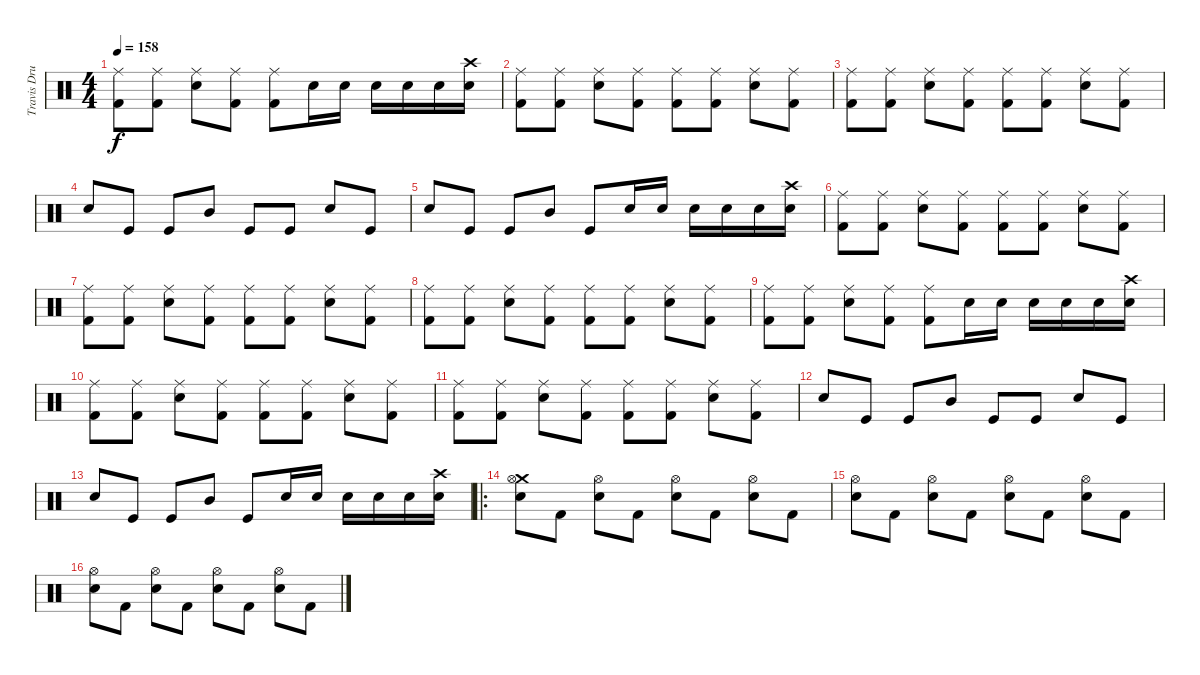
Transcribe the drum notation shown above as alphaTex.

\track ("Travis Drums" "Travis Dru") {instrument percussion}
\staff {score}
\articulation defaults
\ts (4 4)
\tempo 158
\clef neutral
\ks c
("Ride (middle)" "Kick (hit) 2").8{dy f} ("Ride (middle)" "Kick (hit) 2").8 ("Ride (middle)" "Snare (hit) 2").8 ("Ride (middle)" "Kick (hit) 2").8 ("Ride (middle)" "Kick (hit) 2").8 "Snare (hit) 2".16 "Snare (hit) 2".16 "Snare (hit) 2".16 "Snare (hit) 2".16 "Snare (hit) 2".16 ("Snare (hit) 2" "Crash high (hit)").16 |
("Ride (middle)" "Kick (hit) 2").8 ("Ride (middle)" "Kick (hit) 2").8 ("Ride (middle)" "Snare (hit) 2").8 ("Ride (middle)" "Kick (hit) 2").8 ("Ride (middle)" "Kick (hit) 2").8 ("Ride (middle)" "Kick (hit) 2").8 ("Ride (middle)" "Snare (hit) 2").8 ("Ride (middle)" "Kick (hit) 2").8 |
("Ride (middle)" "Kick (hit) 2").8 ("Ride (middle)" "Kick (hit) 2").8 ("Ride (middle)" "Snare (hit) 2").8 ("Ride (middle)" "Kick (hit) 2").8 ("Ride (middle)" "Kick (hit) 2").8 ("Ride (middle)" "Kick (hit) 2").8 ("Ride (middle)" "Snare (hit) 2").8 ("Ride (middle)" "Kick (hit) 2").8 |
"Snare (hit) 2".8 "Kick (hit)".8 "Kick (hit)".8 "Mid Tom (hit)".8 "Kick (hit)".8 "Kick (hit)".8 "Snare (hit) 2".8 "Kick (hit)".8 |
"Snare (hit) 2".8 "Kick (hit)".8 "Kick (hit)".8 "Mid Tom (hit)".8 "Kick (hit)".8 "Snare (hit) 2".16 "Snare (hit) 2".16 "Snare (hit) 2".16 "Snare (hit) 2".16 "Snare (hit) 2".16 ("Snare (hit) 2" "Crash high (hit)").16 |
("Ride (middle)" "Kick (hit) 2").8 ("Ride (middle)" "Kick (hit) 2").8 ("Ride (middle)" "Snare (hit) 2").8 ("Ride (middle)" "Kick (hit) 2").8 ("Ride (middle)" "Kick (hit) 2").8 ("Ride (middle)" "Kick (hit) 2").8 ("Ride (middle)" "Snare (hit) 2").8 ("Ride (middle)" "Kick (hit) 2").8 |
("Ride (middle)" "Kick (hit) 2").8 ("Ride (middle)" "Kick (hit) 2").8 ("Ride (middle)" "Snare (hit) 2").8 ("Ride (middle)" "Kick (hit) 2").8 ("Ride (middle)" "Kick (hit) 2").8 ("Ride (middle)" "Kick (hit) 2").8 ("Ride (middle)" "Snare (hit) 2").8 ("Ride (middle)" "Kick (hit) 2").8 |
("Ride (middle)" "Kick (hit) 2").8 ("Ride (middle)" "Kick (hit) 2").8 ("Ride (middle)" "Snare (hit) 2").8 ("Ride (middle)" "Kick (hit) 2").8 ("Ride (middle)" "Kick (hit) 2").8 ("Ride (middle)" "Kick (hit) 2").8 ("Ride (middle)" "Snare (hit) 2").8 ("Ride (middle)" "Kick (hit) 2").8 |
("Ride (middle)" "Kick (hit) 2").8 ("Ride (middle)" "Kick (hit) 2").8 ("Ride (middle)" "Snare (hit) 2").8 ("Ride (middle)" "Kick (hit) 2").8 ("Ride (middle)" "Kick (hit) 2").8 "Snare (hit) 2".16 "Snare (hit) 2".16 "Snare (hit) 2".16 "Snare (hit) 2".16 "Snare (hit) 2".16 ("Snare (hit) 2" "Crash high (hit)").16 |
("Ride (middle)" "Kick (hit) 2").8 ("Ride (middle)" "Kick (hit) 2").8 ("Ride (middle)" "Snare (hit) 2").8 ("Ride (middle)" "Kick (hit) 2").8 ("Ride (middle)" "Kick (hit) 2").8 ("Ride (middle)" "Kick (hit) 2").8 ("Ride (middle)" "Snare (hit) 2").8 ("Ride (middle)" "Kick (hit) 2").8 |
("Ride (middle)" "Kick (hit) 2").8 ("Ride (middle)" "Kick (hit) 2").8 ("Ride (middle)" "Snare (hit) 2").8 ("Ride (middle)" "Kick (hit) 2").8 ("Ride (middle)" "Kick (hit) 2").8 ("Ride (middle)" "Kick (hit) 2").8 ("Ride (middle)" "Snare (hit) 2").8 ("Ride (middle)" "Kick (hit) 2").8 |
"Snare (hit) 2".8 "Kick (hit)".8 "Kick (hit)".8 "Mid Tom (hit)".8 "Kick (hit)".8 "Kick (hit)".8 "Snare (hit) 2".8 "Kick (hit)".8 |
"Snare (hit) 2".8 "Kick (hit)".8 "Kick (hit)".8 "Mid Tom (hit)".8 "Kick (hit)".8 "Snare (hit) 2".16 "Snare (hit) 2".16 "Snare (hit) 2".16 "Snare (hit) 2".16 "Snare (hit) 2".16 ("Snare (hit) 2" "Crash high (hit)").16 |
\ro
("Snare (hit) 2" "Crash medium (hit)" "Hi-Hat (open)").8 "Kick (hit) 2".8 ("Snare (hit) 2" "Hi-Hat (open)").8 "Kick (hit) 2".8 ("Snare (hit) 2" "Hi-Hat (open)").8 "Kick (hit) 2".8 ("Snare (hit) 2" "Hi-Hat (open)").8 "Kick (hit) 2".8 |
("Snare (hit) 2" "Hi-Hat (open)").8 "Kick (hit) 2".8 ("Snare (hit) 2" "Hi-Hat (open)").8 "Kick (hit) 2".8 ("Snare (hit) 2" "Hi-Hat (open)").8 "Kick (hit) 2".8 ("Snare (hit) 2" "Hi-Hat (open)").8 "Kick (hit) 2".8 |
("Snare (hit) 2" "Hi-Hat (open)").8 "Kick (hit) 2".8 ("Snare (hit) 2" "Hi-Hat (open)").8 "Kick (hit) 2".8 ("Snare (hit) 2" "Hi-Hat (open)").8 "Kick (hit) 2".8 ("Snare (hit) 2" "Hi-Hat (open)").8 "Kick (hit) 2".8
